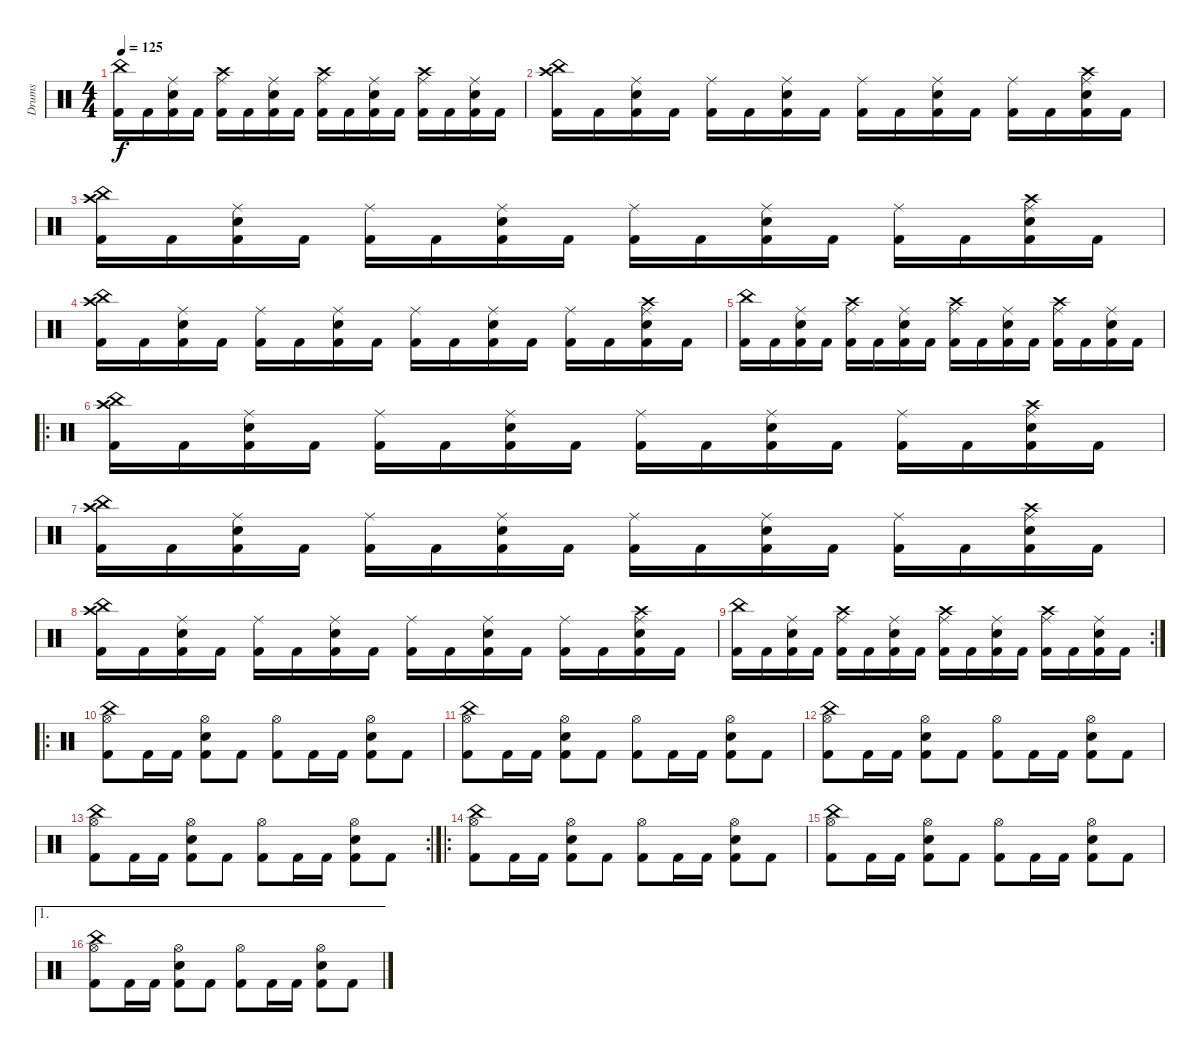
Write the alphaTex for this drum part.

\track ("Drums" "Drums") {instrument percussion}
\staff {score}
\articulation defaults
\ts (4 4)
\tempo 125
\clef neutral
\ks c
("China (hit)" "Kick (hit) 2").16{dy f} "Kick (hit) 2".16 ("Ride (middle)" "Snare (hit) 2" "Kick (hit) 2").16 "Kick (hit) 2".16 ("Ride (middle)" "Crash high (hit)" "Kick (hit) 2").16 "Kick (hit) 2".16 ("Ride (middle)" "Snare (hit) 2" "Kick (hit) 2").16 "Kick (hit) 2".16 ("Ride (middle)" "Crash high (hit)" "Kick (hit) 2").16 "Kick (hit) 2".16 ("Ride (middle)" "Snare (hit) 2" "Kick (hit) 2").16 "Kick (hit) 2".16 ("Ride (middle)" "Crash high (hit)" "Kick (hit) 2").16 "Kick (hit) 2".16 ("Ride (middle)" "Snare (hit) 2" "Kick (hit) 2").16 "Kick (hit) 2".16 |
("China (hit)" "Crash high (hit)" "Kick (hit) 2").16 "Kick (hit) 2".16 ("Ride (middle)" "Snare (hit) 2" "Kick (hit) 2").16 "Kick (hit) 2".16 ("Ride (middle)" "Kick (hit) 2").16 "Kick (hit) 2".16 ("Ride (middle)" "Snare (hit) 2" "Kick (hit) 2").16 "Kick (hit) 2".16 ("Ride (middle)" "Kick (hit) 2").16 "Kick (hit) 2".16 ("Ride (middle)" "Snare (hit) 2" "Kick (hit) 2").16 "Kick (hit) 2".16 ("Ride (middle)" "Kick (hit) 2").16 "Kick (hit) 2".16 ("Ride (middle)" "Crash high (hit)" "Snare (hit) 2" "Kick (hit) 2").16 "Kick (hit) 2".16 |
("China (hit)" "Crash high (hit)" "Kick (hit) 2").16 "Kick (hit) 2".16 ("Ride (middle)" "Snare (hit) 2" "Kick (hit) 2").16 "Kick (hit) 2".16 ("Ride (middle)" "Kick (hit) 2").16 "Kick (hit) 2".16 ("Ride (middle)" "Snare (hit) 2" "Kick (hit) 2").16 "Kick (hit) 2".16 ("Ride (middle)" "Kick (hit) 2").16 "Kick (hit) 2".16 ("Ride (middle)" "Snare (hit) 2" "Kick (hit) 2").16 "Kick (hit) 2".16 ("Ride (middle)" "Kick (hit) 2").16 "Kick (hit) 2".16 ("Ride (middle)" "Crash high (hit)" "Snare (hit) 2" "Kick (hit) 2").16 "Kick (hit) 2".16 |
("China (hit)" "Crash high (hit)" "Kick (hit) 2").16 "Kick (hit) 2".16 ("Ride (middle)" "Snare (hit) 2" "Kick (hit) 2").16 "Kick (hit) 2".16 ("Ride (middle)" "Kick (hit) 2").16 "Kick (hit) 2".16 ("Ride (middle)" "Snare (hit) 2" "Kick (hit) 2").16 "Kick (hit) 2".16 ("Ride (middle)" "Kick (hit) 2").16 "Kick (hit) 2".16 ("Ride (middle)" "Snare (hit) 2" "Kick (hit) 2").16 "Kick (hit) 2".16 ("Ride (middle)" "Kick (hit) 2").16 "Kick (hit) 2".16 ("Ride (middle)" "Crash high (hit)" "Snare (hit) 2" "Kick (hit) 2").16 "Kick (hit) 2".16 |
("China (hit)" "Kick (hit) 2").16 "Kick (hit) 2".16 ("Ride (middle)" "Snare (hit) 2" "Kick (hit) 2").16 "Kick (hit) 2".16 ("Ride (middle)" "Crash high (hit)" "Kick (hit) 2").16 "Kick (hit) 2".16 ("Ride (middle)" "Snare (hit) 2" "Kick (hit) 2").16 "Kick (hit) 2".16 ("Ride (middle)" "Crash high (hit)" "Kick (hit) 2").16 "Kick (hit) 2".16 ("Ride (middle)" "Snare (hit) 2" "Kick (hit) 2").16 "Kick (hit) 2".16 ("Ride (middle)" "Crash high (hit)" "Kick (hit) 2").16 "Kick (hit) 2".16 ("Ride (middle)" "Snare (hit) 2" "Kick (hit) 2").16 "Kick (hit) 2".16 |
\ro
("China (hit)" "Crash high (hit)" "Kick (hit) 2").16 "Kick (hit) 2".16 ("Ride (middle)" "Snare (hit) 2" "Kick (hit) 2").16 "Kick (hit) 2".16 ("Ride (middle)" "Kick (hit) 2").16 "Kick (hit) 2".16 ("Ride (middle)" "Snare (hit) 2" "Kick (hit) 2").16 "Kick (hit) 2".16 ("Ride (middle)" "Kick (hit) 2").16 "Kick (hit) 2".16 ("Ride (middle)" "Snare (hit) 2" "Kick (hit) 2").16 "Kick (hit) 2".16 ("Ride (middle)" "Kick (hit) 2").16 "Kick (hit) 2".16 ("Ride (middle)" "Crash high (hit)" "Snare (hit) 2" "Kick (hit) 2").16 "Kick (hit) 2".16 |
("China (hit)" "Crash high (hit)" "Kick (hit) 2").16 "Kick (hit) 2".16 ("Ride (middle)" "Snare (hit) 2" "Kick (hit) 2").16 "Kick (hit) 2".16 ("Ride (middle)" "Kick (hit) 2").16 "Kick (hit) 2".16 ("Ride (middle)" "Snare (hit) 2" "Kick (hit) 2").16 "Kick (hit) 2".16 ("Ride (middle)" "Kick (hit) 2").16 "Kick (hit) 2".16 ("Ride (middle)" "Snare (hit) 2" "Kick (hit) 2").16 "Kick (hit) 2".16 ("Ride (middle)" "Kick (hit) 2").16 "Kick (hit) 2".16 ("Ride (middle)" "Crash high (hit)" "Snare (hit) 2" "Kick (hit) 2").16 "Kick (hit) 2".16 |
("China (hit)" "Crash high (hit)" "Kick (hit) 2").16 "Kick (hit) 2".16 ("Ride (middle)" "Snare (hit) 2" "Kick (hit) 2").16 "Kick (hit) 2".16 ("Ride (middle)" "Kick (hit) 2").16 "Kick (hit) 2".16 ("Ride (middle)" "Snare (hit) 2" "Kick (hit) 2").16 "Kick (hit) 2".16 ("Ride (middle)" "Kick (hit) 2").16 "Kick (hit) 2".16 ("Ride (middle)" "Snare (hit) 2" "Kick (hit) 2").16 "Kick (hit) 2".16 ("Ride (middle)" "Kick (hit) 2").16 "Kick (hit) 2".16 ("Ride (middle)" "Crash high (hit)" "Snare (hit) 2" "Kick (hit) 2").16 "Kick (hit) 2".16 |
\rc 2
("China (hit)" "Kick (hit) 2").16 "Kick (hit) 2".16 ("Ride (middle)" "Snare (hit) 2" "Kick (hit) 2").16 "Kick (hit) 2".16 ("Ride (middle)" "Crash high (hit)" "Kick (hit) 2").16 "Kick (hit) 2".16 ("Ride (middle)" "Snare (hit) 2" "Kick (hit) 2").16 "Kick (hit) 2".16 ("Ride (middle)" "Crash high (hit)" "Kick (hit) 2").16 "Kick (hit) 2".16 ("Ride (middle)" "Snare (hit) 2" "Kick (hit) 2").16 "Kick (hit) 2".16 ("Ride (middle)" "Crash high (hit)" "Kick (hit) 2").16 "Kick (hit) 2".16 ("Ride (middle)" "Snare (hit) 2" "Kick (hit) 2").16 "Kick (hit) 2".16 |
\ro
("Hi-Hat (open)" "China (hit)" "Kick (hit) 2").8 "Kick (hit) 2".16 "Kick (hit) 2".16 ("Hi-Hat (open)" "Snare (hit) 2" "Kick (hit) 2").8 "Kick (hit) 2".8 ("Hi-Hat (open)" "Kick (hit) 2").8 "Kick (hit) 2".16 "Kick (hit) 2".16 ("Hi-Hat (open)" "Snare (hit) 2" "Kick (hit) 2").8 "Kick (hit) 2".8 |
("Hi-Hat (open)" "China (hit)" "Kick (hit) 2").8 "Kick (hit) 2".16 "Kick (hit) 2".16 ("Hi-Hat (open)" "Snare (hit) 2" "Kick (hit) 2").8 "Kick (hit) 2".8 ("Hi-Hat (open)" "Kick (hit) 2").8 "Kick (hit) 2".16 "Kick (hit) 2".16 ("Hi-Hat (open)" "Snare (hit) 2" "Kick (hit) 2").8 "Kick (hit) 2".8 |
("Hi-Hat (open)" "China (hit)" "Kick (hit) 2").8 "Kick (hit) 2".16 "Kick (hit) 2".16 ("Hi-Hat (open)" "Snare (hit) 2" "Kick (hit) 2").8 "Kick (hit) 2".8 ("Hi-Hat (open)" "Kick (hit) 2").8 "Kick (hit) 2".16 "Kick (hit) 2".16 ("Hi-Hat (open)" "Snare (hit) 2" "Kick (hit) 2").8 "Kick (hit) 2".8 |
\rc 2
("Hi-Hat (open)" "China (hit)" "Kick (hit) 2").8 "Kick (hit) 2".16 "Kick (hit) 2".16 ("Hi-Hat (open)" "Snare (hit) 2" "Kick (hit) 2").8 "Kick (hit) 2".8 ("Hi-Hat (open)" "Kick (hit) 2").8 "Kick (hit) 2".16 "Kick (hit) 2".16 ("Hi-Hat (open)" "Snare (hit) 2" "Kick (hit) 2").8 "Kick (hit) 2".8 |
\ro
("Hi-Hat (open)" "China (hit)" "Kick (hit) 2").8 "Kick (hit) 2".16 "Kick (hit) 2".16 ("Hi-Hat (open)" "Snare (hit) 2" "Kick (hit) 2").8 "Kick (hit) 2".8 ("Hi-Hat (open)" "Kick (hit) 2").8 "Kick (hit) 2".16 "Kick (hit) 2".16 ("Hi-Hat (open)" "Snare (hit) 2" "Kick (hit) 2").8 "Kick (hit) 2".8 |
("Hi-Hat (open)" "China (hit)" "Kick (hit) 2").8 "Kick (hit) 2".16 "Kick (hit) 2".16 ("Hi-Hat (open)" "Snare (hit) 2" "Kick (hit) 2").8 "Kick (hit) 2".8 ("Hi-Hat (open)" "Kick (hit) 2").8 "Kick (hit) 2".16 "Kick (hit) 2".16 ("Hi-Hat (open)" "Snare (hit) 2" "Kick (hit) 2").8 "Kick (hit) 2".8 |
\ae 1
("Hi-Hat (open)" "China (hit)" "Kick (hit) 2").8 "Kick (hit) 2".16 "Kick (hit) 2".16 ("Hi-Hat (open)" "Snare (hit) 2" "Kick (hit) 2").8 "Kick (hit) 2".8 ("Hi-Hat (open)" "Kick (hit) 2").8 "Kick (hit) 2".16 "Kick (hit) 2".16 ("Hi-Hat (open)" "Snare (hit) 2" "Kick (hit) 2").8 "Kick (hit) 2".8
